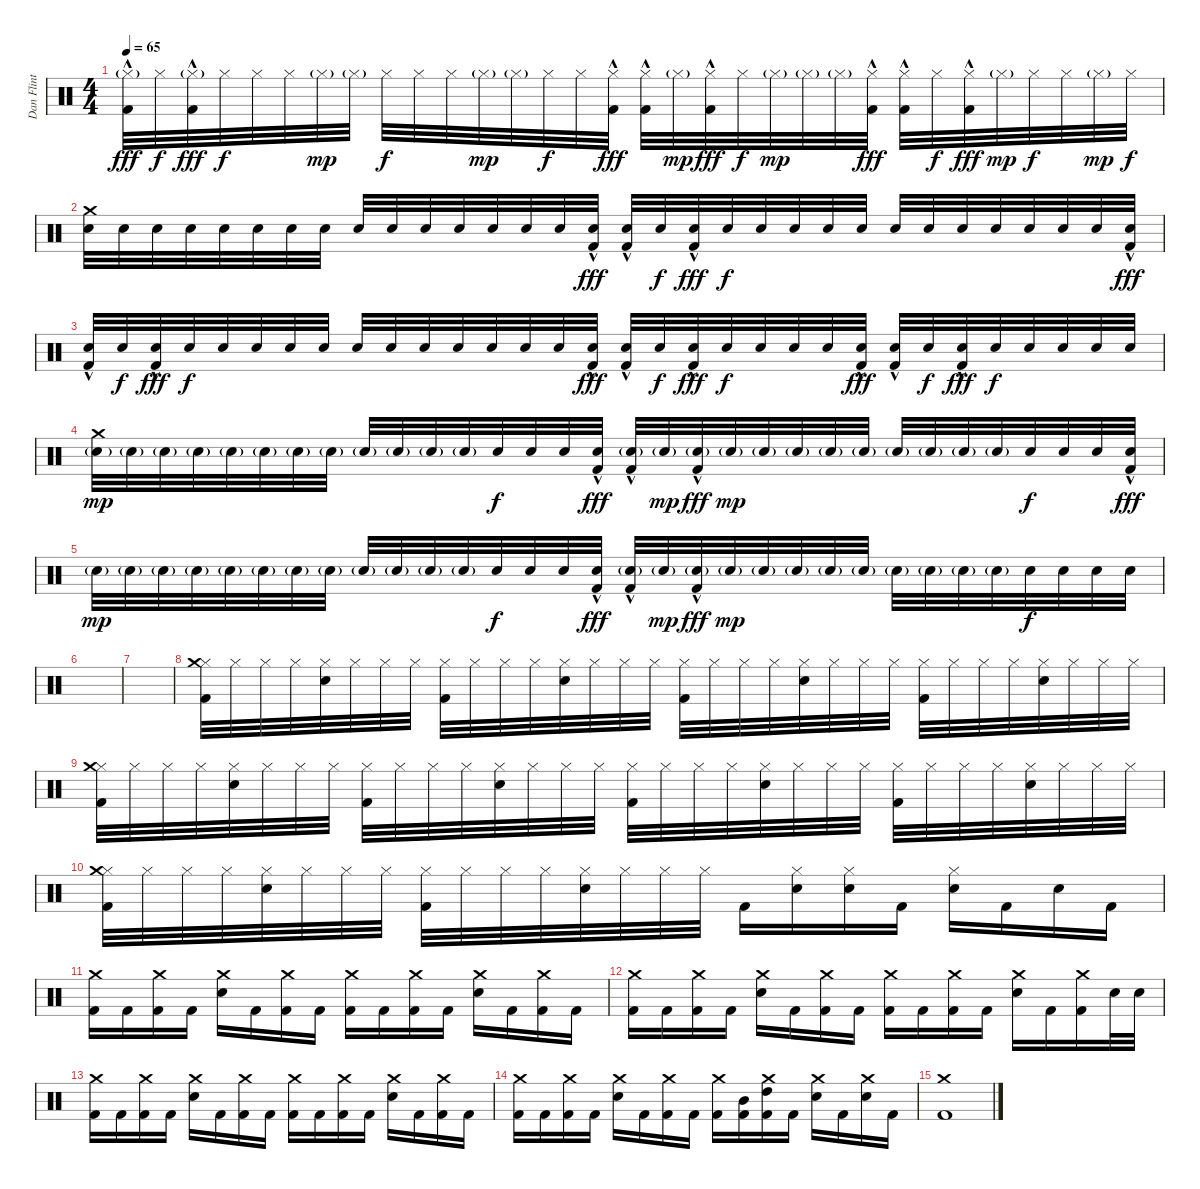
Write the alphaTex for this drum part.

\track ("Dan Flint" "Dan Flint") {instrument percussion}
\staff {score}
\articulation defaults
\ts (4 4)
\tempo 65
\clef neutral
\ks c
("Hi-Hat (closed)"{g} "Kick (hit) 2"{hac}).32{dy fff} "Hi-Hat (closed)".32{dy f} ("Hi-Hat (closed)"{g} "Kick (hit) 2"{hac}).32{dy fff} "Hi-Hat (closed)".32{dy f} "Hi-Hat (closed)".32 "Hi-Hat (closed)".32 "Hi-Hat (closed)"{g}.32{dy mp} "Hi-Hat (closed)"{g}.32 "Hi-Hat (closed)".32{dy f} "Hi-Hat (closed)".32 "Hi-Hat (closed)".32 "Hi-Hat (closed)"{g}.32{dy mp} "Hi-Hat (closed)"{g}.32 "Hi-Hat (closed)".32{dy f} "Hi-Hat (closed)".32 ("Hi-Hat (closed)" "Kick (hit) 2"{hac}).32{dy fff} ("Hi-Hat (closed)" "Kick (hit) 2"{hac}).32 "Hi-Hat (closed)"{g}.32{dy mp} ("Hi-Hat (closed)" "Kick (hit) 2"{hac}).32{dy fff} "Hi-Hat (closed)".32{dy f} "Hi-Hat (closed)"{g}.32{dy mp} "Hi-Hat (closed)"{g}.32 "Hi-Hat (closed)"{g}.32 ("Hi-Hat (closed)" "Kick (hit) 2"{hac}).32{dy fff} ("Hi-Hat (closed)" "Kick (hit) 2"{hac}).32 "Hi-Hat (closed)".32{dy f} ("Hi-Hat (closed)" "Kick (hit) 2"{hac}).32{dy fff} "Hi-Hat (closed)"{g}.32{dy mp} "Hi-Hat (closed)".32{dy f} "Hi-Hat (closed)".32 "Hi-Hat (closed)"{g}.32{dy mp} "Hi-Hat (closed)".32{dy f} |
("Snare (hit) 2" "Crash medium (hit)").32 "Snare (hit) 2".32 "Snare (hit) 2".32 "Snare (hit) 2".32 "Snare (hit) 2".32 "Snare (hit) 2".32 "Snare (hit) 2".32 "Snare (hit) 2".32 "Snare (hit) 2".32 "Snare (hit) 2".32 "Snare (hit) 2".32 "Snare (hit) 2".32 "Snare (hit) 2".32 "Snare (hit) 2".32 "Snare (hit) 2".32 ("Snare (hit) 2" "Kick (hit) 2"{hac}).32{dy fff} ("Snare (hit) 2" "Kick (hit) 2"{hac}).32 "Snare (hit) 2".32{dy f} ("Snare (hit) 2" "Kick (hit) 2"{hac}).32{dy fff} "Snare (hit) 2".32{dy f} "Snare (hit) 2".32 "Snare (hit) 2".32 "Snare (hit) 2".32 "Snare (hit) 2".32 "Snare (hit) 2".32 "Snare (hit) 2".32 "Snare (hit) 2".32 "Snare (hit) 2".32 "Snare (hit) 2".32 "Snare (hit) 2".32 "Snare (hit) 2".32 ("Snare (hit) 2" "Kick (hit) 2"{hac}).32{dy fff} |
("Snare (hit) 2" "Kick (hit) 2"{hac}).32 "Snare (hit) 2".32{dy f} ("Snare (hit) 2" "Kick (hit) 2"{hac}).32{dy fff} "Snare (hit) 2".32{dy f} "Snare (hit) 2".32 "Snare (hit) 2".32 "Snare (hit) 2".32 "Snare (hit) 2".32 "Snare (hit) 2".32 "Snare (hit) 2".32 "Snare (hit) 2".32 "Snare (hit) 2".32 "Snare (hit) 2".32 "Snare (hit) 2".32 "Snare (hit) 2".32 ("Snare (hit) 2" "Kick (hit) 2"{hac}).32{dy fff} ("Snare (hit) 2" "Kick (hit) 2"{hac}).32 "Snare (hit) 2".32{dy f} ("Snare (hit) 2" "Kick (hit) 2"{hac}).32{dy fff} "Snare (hit) 2".32{dy f} "Snare (hit) 2".32 "Snare (hit) 2".32 "Snare (hit) 2".32 ("Snare (hit) 2" "Kick (hit) 2"{hac}).32{dy fff} ("Snare (hit) 2" "Kick (hit) 2"{hac}).32 "Snare (hit) 2".32{dy f} ("Snare (hit) 2" "Kick (hit) 2"{hac}).32{dy fff} "Snare (hit) 2".32{dy f} "Snare (hit) 2".32 "Snare (hit) 2".32 "Snare (hit) 2".32 "Snare (hit) 2".32 |
("Snare (hit) 2"{g} "Crash medium (hit)").32{dy mp} "Snare (hit) 2"{g}.32 "Snare (hit) 2"{g}.32 "Snare (hit) 2"{g}.32 "Snare (hit) 2"{g}.32 "Snare (hit) 2"{g}.32 "Snare (hit) 2"{g}.32 "Snare (hit) 2"{g}.32 "Snare (hit) 2"{g}.32 "Snare (hit) 2"{g}.32 "Snare (hit) 2"{g}.32 "Snare (hit) 2"{g}.32 "Snare (hit) 2".32{dy f} "Snare (hit) 2".32 "Snare (hit) 2".32 ("Snare (hit) 2" "Kick (hit) 2"{hac}).32{dy fff} ("Snare (hit) 2"{g} "Kick (hit) 2"{hac}).32 "Snare (hit) 2"{g}.32{dy mp} ("Snare (hit) 2"{g} "Kick (hit) 2"{hac}).32{dy fff} "Snare (hit) 2"{g}.32{dy mp} "Snare (hit) 2"{g}.32 "Snare (hit) 2"{g}.32 "Snare (hit) 2"{g}.32 "Snare (hit) 2"{g}.32 "Snare (hit) 2"{g}.32 "Snare (hit) 2"{g}.32 "Snare (hit) 2"{g}.32 "Snare (hit) 2"{g}.32 "Snare (hit) 2".32{dy f} "Snare (hit) 2".32 "Snare (hit) 2".32 ("Snare (hit) 2" "Kick (hit) 2"{hac}).32{dy fff} |
"Snare (hit) 2"{g}.32{dy mp} "Snare (hit) 2"{g}.32 "Snare (hit) 2"{g}.32 "Snare (hit) 2"{g}.32 "Snare (hit) 2"{g}.32 "Snare (hit) 2"{g}.32 "Snare (hit) 2"{g}.32 "Snare (hit) 2"{g}.32 "Snare (hit) 2"{g}.32 "Snare (hit) 2"{g}.32 "Snare (hit) 2"{g}.32 "Snare (hit) 2"{g}.32 "Snare (hit) 2".32{dy f} "Snare (hit) 2".32 "Snare (hit) 2".32 ("Snare (hit) 2" "Kick (hit) 2"{hac}).32{dy fff} ("Snare (hit) 2"{g} "Kick (hit) 2"{hac}).32 "Snare (hit) 2"{g}.32{dy mp} ("Snare (hit) 2"{g} "Kick (hit) 2"{hac}).32{dy fff} "Snare (hit) 2"{g}.32{dy mp} "Snare (hit) 2"{g}.32 "Snare (hit) 2"{g}.32 "Snare (hit) 2"{g}.32 "Snare (hit) 2"{g}.32 "Snare (hit) 2"{g}.32 "Snare (hit) 2"{g}.32 "Snare (hit) 2"{g}.32 "Snare (hit) 2"{g}.32 "Snare (hit) 2".32{dy f} "Snare (hit) 2".32 "Snare (hit) 2".32 "Snare (hit) 2".32 |
|
|
("Hi-Hat (closed)" "Kick (hit) 2" "Crash medium (hit)").32 "Hi-Hat (closed)".32 "Hi-Hat (closed)".32 "Hi-Hat (closed)".32 ("Hi-Hat (closed)" "Snare (hit) 2").32 "Hi-Hat (closed)".32 "Hi-Hat (closed)".32 "Hi-Hat (closed)".32 ("Hi-Hat (closed)" "Kick (hit) 2").32 "Hi-Hat (closed)".32 "Hi-Hat (closed)".32 "Hi-Hat (closed)".32 ("Hi-Hat (closed)" "Snare (hit) 2").32 "Hi-Hat (closed)".32 "Hi-Hat (closed)".32 "Hi-Hat (closed)".32 ("Hi-Hat (closed)" "Kick (hit) 2").32 "Hi-Hat (closed)".32 "Hi-Hat (closed)".32 "Hi-Hat (closed)".32 ("Hi-Hat (closed)" "Snare (hit) 2").32 "Hi-Hat (closed)".32 "Hi-Hat (closed)".32 "Hi-Hat (closed)".32 ("Hi-Hat (closed)" "Kick (hit) 2").32 "Hi-Hat (closed)".32 "Hi-Hat (closed)".32 "Hi-Hat (closed)".32 ("Hi-Hat (closed)" "Snare (hit) 2").32 "Hi-Hat (closed)".32 "Hi-Hat (closed)".32 "Hi-Hat (closed)".32 |
("Hi-Hat (closed)" "Kick (hit) 2" "Crash medium (hit)").32 "Hi-Hat (closed)".32 "Hi-Hat (closed)".32 "Hi-Hat (closed)".32 ("Hi-Hat (closed)" "Snare (hit) 2").32 "Hi-Hat (closed)".32 "Hi-Hat (closed)".32 "Hi-Hat (closed)".32 ("Hi-Hat (closed)" "Kick (hit) 2").32 "Hi-Hat (closed)".32 "Hi-Hat (closed)".32 "Hi-Hat (closed)".32 ("Hi-Hat (closed)" "Snare (hit) 2").32 "Hi-Hat (closed)".32 "Hi-Hat (closed)".32 "Hi-Hat (closed)".32 ("Hi-Hat (closed)" "Kick (hit) 2").32 "Hi-Hat (closed)".32 "Hi-Hat (closed)".32 "Hi-Hat (closed)".32 ("Hi-Hat (closed)" "Snare (hit) 2").32 "Hi-Hat (closed)".32 "Hi-Hat (closed)".32 "Hi-Hat (closed)".32 ("Hi-Hat (closed)" "Kick (hit) 2").32 "Hi-Hat (closed)".32 "Hi-Hat (closed)".32 "Hi-Hat (closed)".32 ("Hi-Hat (closed)" "Snare (hit) 2").32 "Hi-Hat (closed)".32 "Hi-Hat (closed)".32 "Hi-Hat (closed)".32 |
("Hi-Hat (closed)" "Kick (hit) 2" "Crash medium (hit)").32 "Hi-Hat (closed)".32 "Hi-Hat (closed)".32 "Hi-Hat (closed)".32 ("Hi-Hat (closed)" "Snare (hit) 2").32 "Hi-Hat (closed)".32 "Hi-Hat (closed)".32 "Hi-Hat (closed)".32 ("Hi-Hat (closed)" "Kick (hit) 2").32 "Hi-Hat (closed)".32 "Hi-Hat (closed)".32 "Hi-Hat (closed)".32 ("Hi-Hat (closed)" "Snare (hit) 2").32 "Hi-Hat (closed)".32 "Hi-Hat (closed)".32 "Hi-Hat (closed)".32 "Kick (hit) 2".16 ("Snare (hit) 2" "Hi-Hat (closed)").16 ("Snare (hit) 2" "Hi-Hat (closed)").16 "Kick (hit) 2".16 ("Snare (hit) 2" "Hi-Hat (closed)").16 "Kick (hit) 2".16 "Snare (hit) 2".16 "Kick (hit) 2".16 |
("Crash medium (hit)" "Kick (hit) 2").16 "Kick (hit) 2".16 ("Crash medium (hit)" "Kick (hit) 2").16 "Kick (hit) 2".16 ("Crash medium (hit)" "Snare (hit) 2").16 "Kick (hit) 2".16 ("Crash medium (hit)" "Kick (hit) 2").16 "Kick (hit) 2".16 ("Crash medium (hit)" "Kick (hit) 2").16 "Kick (hit) 2".16 ("Crash medium (hit)" "Kick (hit) 2").16 "Kick (hit) 2".16 ("Crash medium (hit)" "Snare (hit) 2").16 "Kick (hit) 2".16 ("Crash medium (hit)" "Kick (hit) 2").16 "Kick (hit) 2".16 |
("Crash medium (hit)" "Kick (hit) 2").16 "Kick (hit) 2".16 ("Crash medium (hit)" "Kick (hit) 2").16 "Kick (hit) 2".16 ("Crash medium (hit)" "Snare (hit) 2").16 "Kick (hit) 2".16 ("Crash medium (hit)" "Kick (hit) 2").16 "Kick (hit) 2".16 ("Crash medium (hit)" "Kick (hit) 2").16 "Kick (hit) 2".16 ("Crash medium (hit)" "Kick (hit) 2").16 "Kick (hit) 2".16 ("Crash medium (hit)" "Snare (hit) 2").16 "Kick (hit) 2".16 ("Crash medium (hit)" "Kick (hit) 2").16 "Snare (hit) 2".32 "Snare (hit) 2".32 |
("Crash medium (hit)" "Kick (hit) 2").16 "Kick (hit) 2".16 ("Crash medium (hit)" "Kick (hit) 2").16 "Kick (hit) 2".16 ("Crash medium (hit)" "Snare (hit) 2").16 "Kick (hit) 2".16 ("Crash medium (hit)" "Kick (hit) 2").16 "Kick (hit) 2".16 ("Crash medium (hit)" "Kick (hit) 2").16 "Kick (hit) 2".16 ("Crash medium (hit)" "Kick (hit) 2").16 "Kick (hit) 2".16 ("Crash medium (hit)" "Snare (hit) 2").16 "Kick (hit) 2".16 ("Crash medium (hit)" "Kick (hit) 2").16 "Kick (hit) 2".16 |
("Crash medium (hit)" "Kick (hit) 2").16 "Kick (hit) 2".16 ("Crash medium (hit)" "Kick (hit) 2").16 "Kick (hit) 2".16 ("Crash medium (hit)" "Snare (hit) 2").16 "Kick (hit) 2".16 ("Crash medium (hit)" "Kick (hit) 2").16 "Kick (hit) 2".16 ("Crash medium (hit)" "Kick (hit) 2").16 ("Mid Tom (hit)" "Kick (hit) 2").16 ("Crash medium (hit)" "High Tom (hit)" "Kick (hit) 2").16 "Kick (hit) 2".16 ("Crash medium (hit)" "Snare (hit) 2").16 "Kick (hit) 2".16 ("Crash medium (hit)" "Snare (hit) 2").16 "Kick (hit) 2".16 |
("Crash medium (hit)" "Kick (hit) 2").1
